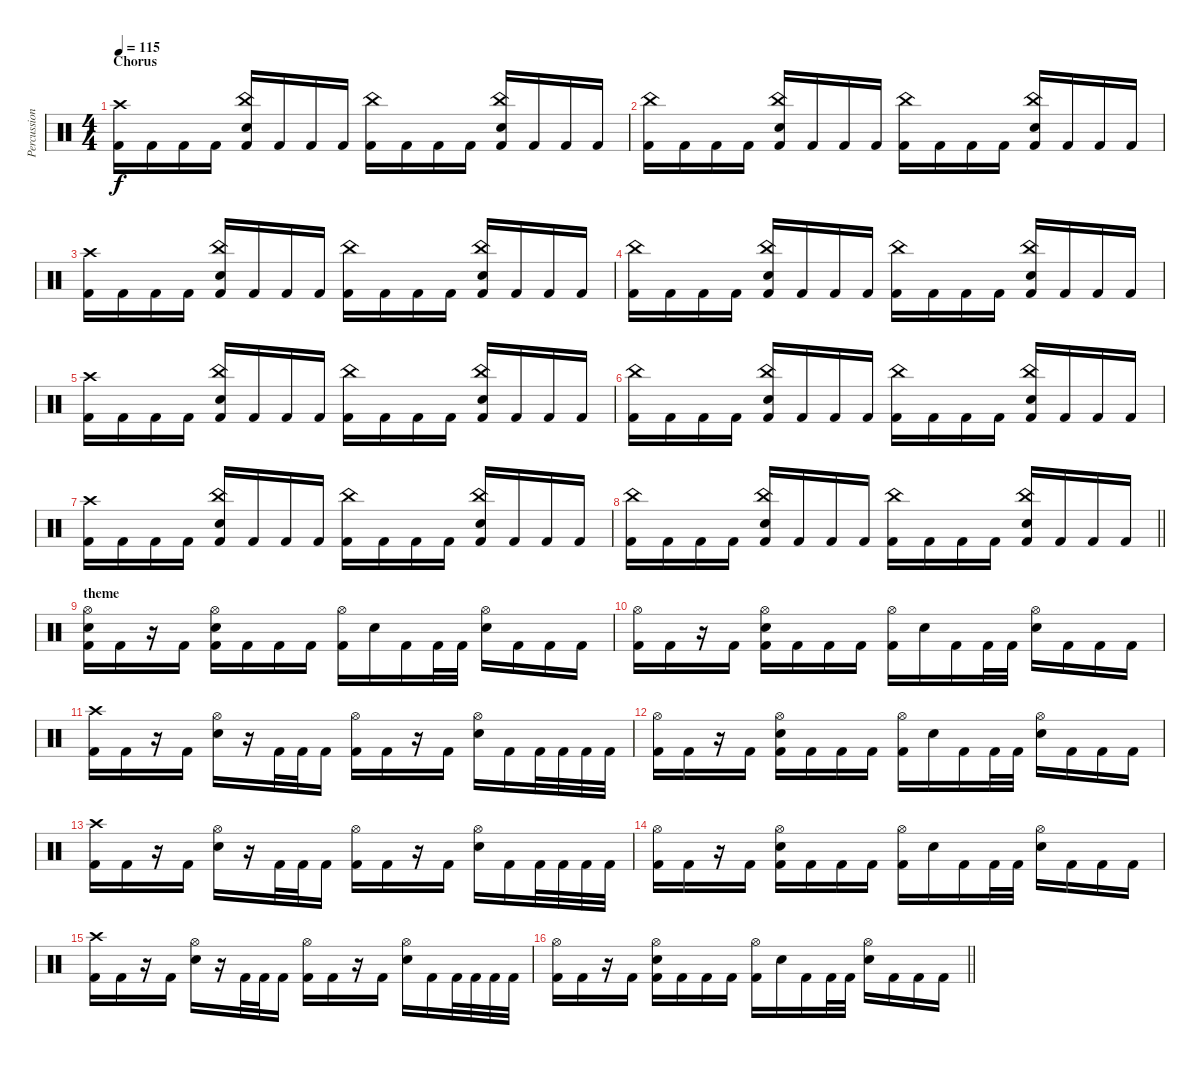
\track ("Percussion" "Percussion") {instrument percussion}
\staff {score}
\articulation defaults
\ts (4 4)
\section ("" "Chorus")
\tempo 115
\clef neutral
\ks c
("Crash high (hit)" "Kick (hit) 2").16{dy f} "Kick (hit) 2".16 "Kick (hit) 2".16 "Kick (hit) 2".16 ("China (hit)" "Snare (hit) 2" "Kick (hit) 2").16 "Kick (hit) 2".16 "Kick (hit) 2".16 "Kick (hit) 2".16 ("China (hit)" "Kick (hit) 2").16 "Kick (hit) 2".16 "Kick (hit) 2".16 "Kick (hit) 2".16 ("China (hit)" "Snare (hit) 2" "Kick (hit) 2").16 "Kick (hit) 2".16 "Kick (hit) 2".16 "Kick (hit) 2".16 |
("China (hit)" "Kick (hit) 2").16 "Kick (hit) 2".16 "Kick (hit) 2".16 "Kick (hit) 2".16 ("China (hit)" "Snare (hit) 2" "Kick (hit) 2").16 "Kick (hit) 2".16 "Kick (hit) 2".16 "Kick (hit) 2".16 ("China (hit)" "Kick (hit) 2").16 "Kick (hit) 2".16 "Kick (hit) 2".16 "Kick (hit) 2".16 ("China (hit)" "Snare (hit) 2" "Kick (hit) 2").16 "Kick (hit) 2".16 "Kick (hit) 2".16 "Kick (hit) 2".16 |
("Crash high (hit)" "Kick (hit) 2").16 "Kick (hit) 2".16 "Kick (hit) 2".16 "Kick (hit) 2".16 ("China (hit)" "Snare (hit) 2" "Kick (hit) 2").16 "Kick (hit) 2".16 "Kick (hit) 2".16 "Kick (hit) 2".16 ("China (hit)" "Kick (hit) 2").16 "Kick (hit) 2".16 "Kick (hit) 2".16 "Kick (hit) 2".16 ("China (hit)" "Snare (hit) 2" "Kick (hit) 2").16 "Kick (hit) 2".16 "Kick (hit) 2".16 "Kick (hit) 2".16 |
("China (hit)" "Kick (hit) 2").16 "Kick (hit) 2".16 "Kick (hit) 2".16 "Kick (hit) 2".16 ("China (hit)" "Snare (hit) 2" "Kick (hit) 2").16 "Kick (hit) 2".16 "Kick (hit) 2".16 "Kick (hit) 2".16 ("China (hit)" "Kick (hit) 2").16 "Kick (hit) 2".16 "Kick (hit) 2".16 "Kick (hit) 2".16 ("China (hit)" "Snare (hit) 2" "Kick (hit) 2").16 "Kick (hit) 2".16 "Kick (hit) 2".16 "Kick (hit) 2".16 |
("Crash high (hit)" "Kick (hit) 2").16 "Kick (hit) 2".16 "Kick (hit) 2".16 "Kick (hit) 2".16 ("China (hit)" "Snare (hit) 2" "Kick (hit) 2").16 "Kick (hit) 2".16 "Kick (hit) 2".16 "Kick (hit) 2".16 ("China (hit)" "Kick (hit) 2").16 "Kick (hit) 2".16 "Kick (hit) 2".16 "Kick (hit) 2".16 ("China (hit)" "Snare (hit) 2" "Kick (hit) 2").16 "Kick (hit) 2".16 "Kick (hit) 2".16 "Kick (hit) 2".16 |
("China (hit)" "Kick (hit) 2").16 "Kick (hit) 2".16 "Kick (hit) 2".16 "Kick (hit) 2".16 ("China (hit)" "Snare (hit) 2" "Kick (hit) 2").16 "Kick (hit) 2".16 "Kick (hit) 2".16 "Kick (hit) 2".16 ("China (hit)" "Kick (hit) 2").16 "Kick (hit) 2".16 "Kick (hit) 2".16 "Kick (hit) 2".16 ("China (hit)" "Snare (hit) 2" "Kick (hit) 2").16 "Kick (hit) 2".16 "Kick (hit) 2".16 "Kick (hit) 2".16 |
("Crash high (hit)" "Kick (hit) 2").16 "Kick (hit) 2".16 "Kick (hit) 2".16 "Kick (hit) 2".16 ("China (hit)" "Snare (hit) 2" "Kick (hit) 2").16 "Kick (hit) 2".16 "Kick (hit) 2".16 "Kick (hit) 2".16 ("China (hit)" "Kick (hit) 2").16 "Kick (hit) 2".16 "Kick (hit) 2".16 "Kick (hit) 2".16 ("China (hit)" "Snare (hit) 2" "Kick (hit) 2").16 "Kick (hit) 2".16 "Kick (hit) 2".16 "Kick (hit) 2".16 |
\barLineRight lightlight
("China (hit)" "Kick (hit) 2").16 "Kick (hit) 2".16 "Kick (hit) 2".16 "Kick (hit) 2".16 ("China (hit)" "Snare (hit) 2" "Kick (hit) 2").16 "Kick (hit) 2".16 "Kick (hit) 2".16 "Kick (hit) 2".16 ("China (hit)" "Kick (hit) 2").16 "Kick (hit) 2".16 "Kick (hit) 2".16 "Kick (hit) 2".16 ("China (hit)" "Snare (hit) 2" "Kick (hit) 2").16 "Kick (hit) 2".16 "Kick (hit) 2".16 "Kick (hit) 2".16 |
\section ("" "theme")
("Hi-Hat (open)" "Snare (hit) 2" "Kick (hit) 2").16 "Kick (hit) 2".16 r.16 "Kick (hit) 2".16 ("Hi-Hat (open)" "Snare (hit) 2" "Kick (hit) 2").16 "Kick (hit) 2".16 "Kick (hit) 2".16 "Kick (hit) 2".16 ("Hi-Hat (open)" "Kick (hit) 2").16 "Snare (hit) 2".16 "Kick (hit) 2".16 "Kick (hit) 2".32 "Kick (hit) 2".32 ("Hi-Hat (open)" "Snare (hit) 2").16 "Kick (hit) 2".16 "Kick (hit) 2".16 "Kick (hit) 2".16 |
("Hi-Hat (open)" "Kick (hit) 2").16 "Kick (hit) 2".16 r.16 "Kick (hit) 2".16 ("Hi-Hat (open)" "Snare (hit) 2" "Kick (hit) 2").16 "Kick (hit) 2".16 "Kick (hit) 2".16 "Kick (hit) 2".16 ("Hi-Hat (open)" "Kick (hit) 2").16 "Snare (hit) 2".16 "Kick (hit) 2".16 "Kick (hit) 2".32 "Kick (hit) 2".32 ("Hi-Hat (open)" "Snare (hit) 2").16 "Kick (hit) 2".16 "Kick (hit) 2".16 "Kick (hit) 2".16 |
("Crash high (hit)" "Kick (hit) 2").16 "Kick (hit) 2".16 r.16 "Kick (hit) 2".16 ("Hi-Hat (open)" "Snare (hit) 2").16 r.16 "Kick (hit) 2".32 "Kick (hit) 2".32 "Kick (hit) 2".16 ("Hi-Hat (open)" "Kick (hit) 2").16 "Kick (hit) 2".16 r.16 "Kick (hit) 2".16 ("Hi-Hat (open)" "Snare (hit) 2").16 "Kick (hit) 2".16 "Kick (hit) 2".32 "Kick (hit) 2".32 "Kick (hit) 2".32 "Kick (hit) 2".32 |
("Hi-Hat (open)" "Kick (hit) 2").16 "Kick (hit) 2".16 r.16 "Kick (hit) 2".16 ("Hi-Hat (open)" "Snare (hit) 2" "Kick (hit) 2").16 "Kick (hit) 2".16 "Kick (hit) 2".16 "Kick (hit) 2".16 ("Hi-Hat (open)" "Kick (hit) 2").16 "Snare (hit) 2".16 "Kick (hit) 2".16 "Kick (hit) 2".32 "Kick (hit) 2".32 ("Hi-Hat (open)" "Snare (hit) 2").16 "Kick (hit) 2".16 "Kick (hit) 2".16 "Kick (hit) 2".16 |
("Crash high (hit)" "Kick (hit) 2").16 "Kick (hit) 2".16 r.16 "Kick (hit) 2".16 ("Hi-Hat (open)" "Snare (hit) 2").16 r.16 "Kick (hit) 2".32 "Kick (hit) 2".32 "Kick (hit) 2".16 ("Hi-Hat (open)" "Kick (hit) 2").16 "Kick (hit) 2".16 r.16 "Kick (hit) 2".16 ("Hi-Hat (open)" "Snare (hit) 2").16 "Kick (hit) 2".16 "Kick (hit) 2".32 "Kick (hit) 2".32 "Kick (hit) 2".32 "Kick (hit) 2".32 |
("Hi-Hat (open)" "Kick (hit) 2").16 "Kick (hit) 2".16 r.16 "Kick (hit) 2".16 ("Hi-Hat (open)" "Snare (hit) 2" "Kick (hit) 2").16 "Kick (hit) 2".16 "Kick (hit) 2".16 "Kick (hit) 2".16 ("Hi-Hat (open)" "Kick (hit) 2").16 "Snare (hit) 2".16 "Kick (hit) 2".16 "Kick (hit) 2".32 "Kick (hit) 2".32 ("Hi-Hat (open)" "Snare (hit) 2").16 "Kick (hit) 2".16 "Kick (hit) 2".16 "Kick (hit) 2".16 |
("Crash high (hit)" "Kick (hit) 2").16 "Kick (hit) 2".16 r.16 "Kick (hit) 2".16 ("Hi-Hat (open)" "Snare (hit) 2").16 r.16 "Kick (hit) 2".32 "Kick (hit) 2".32 "Kick (hit) 2".16 ("Hi-Hat (open)" "Kick (hit) 2").16 "Kick (hit) 2".16 r.16 "Kick (hit) 2".16 ("Hi-Hat (open)" "Snare (hit) 2").16 "Kick (hit) 2".16 "Kick (hit) 2".32 "Kick (hit) 2".32 "Kick (hit) 2".32 "Kick (hit) 2".32 |
\barLineRight lightlight
("Hi-Hat (open)" "Kick (hit) 2").16 "Kick (hit) 2".16 r.16 "Kick (hit) 2".16 ("Hi-Hat (open)" "Snare (hit) 2" "Kick (hit) 2").16 "Kick (hit) 2".16 "Kick (hit) 2".16 "Kick (hit) 2".16 ("Hi-Hat (open)" "Kick (hit) 2").16 "Snare (hit) 2".16 "Kick (hit) 2".16 "Kick (hit) 2".32 "Kick (hit) 2".32 ("Hi-Hat (open)" "Snare (hit) 2").16 "Kick (hit) 2".16 "Kick (hit) 2".16 "Kick (hit) 2".16
